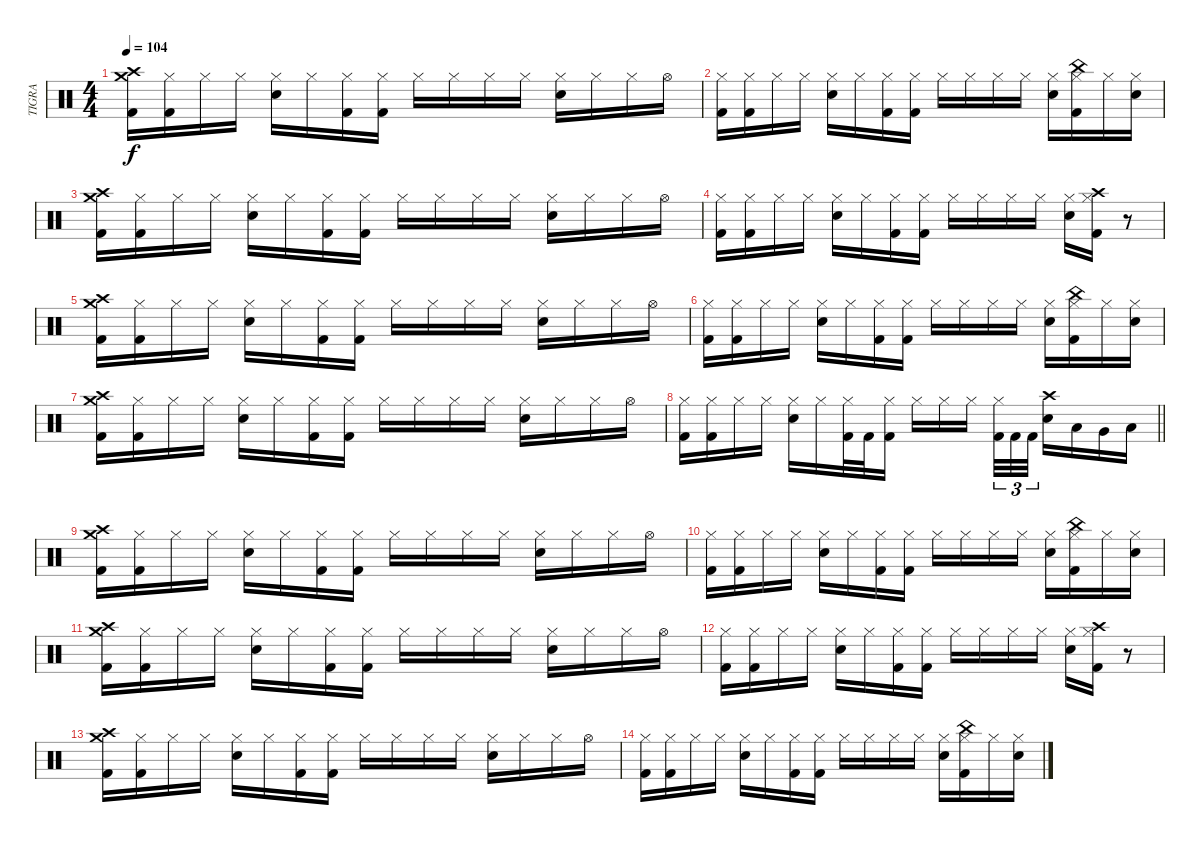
\track ("TIGRA" "TIGRA") {instrument percussion}
\staff {score}
\articulation defaults
\ts (4 4)
\tempo 104
\clef neutral
\ks c
("Crash medium (hit)" "Crash high (hit)" "Kick (hit) 2").16{dy f} ("Hi-Hat (closed)" "Kick (hit) 2").16 "Hi-Hat (closed)".16 "Hi-Hat (closed)".16 ("Hi-Hat (closed)" "Snare (hit) 2").16 "Hi-Hat (closed)".16 ("Hi-Hat (closed)" "Kick (hit) 2").16 ("Hi-Hat (closed)" "Kick (hit) 2").16 "Hi-Hat (closed)".16 "Hi-Hat (closed)".16 "Hi-Hat (closed)".16 "Hi-Hat (closed)".16 ("Hi-Hat (closed)" "Snare (hit) 2").16 "Hi-Hat (closed)".16 "Hi-Hat (closed)".16 "Hi-Hat (open)".16 |
("Hi-Hat (closed)" "Kick (hit) 2").16 ("Hi-Hat (closed)" "Kick (hit) 2").16 "Hi-Hat (closed)".16 "Hi-Hat (closed)".16 ("Hi-Hat (closed)" "Snare (hit) 2").16 "Hi-Hat (closed)".16 ("Hi-Hat (closed)" "Kick (hit) 2").16 ("Hi-Hat (closed)" "Kick (hit) 2").16 "Hi-Hat (closed)".16 "Hi-Hat (closed)".16 "Hi-Hat (closed)".16 "Hi-Hat (closed)".16 ("Hi-Hat (closed)" "Snare (hit) 2").16 ("Hi-Hat (closed)" "China (hit)" "Kick (hit) 2").16 "Hi-Hat (closed)".16 ("Hi-Hat (closed)" "Snare (hit) 2").16 |
("Crash medium (hit)" "Crash high (hit)" "Kick (hit) 2").16 ("Hi-Hat (closed)" "Kick (hit) 2").16 "Hi-Hat (closed)".16 "Hi-Hat (closed)".16 ("Hi-Hat (closed)" "Snare (hit) 2").16 "Hi-Hat (closed)".16 ("Hi-Hat (closed)" "Kick (hit) 2").16 ("Hi-Hat (closed)" "Kick (hit) 2").16 "Hi-Hat (closed)".16 "Hi-Hat (closed)".16 "Hi-Hat (closed)".16 "Hi-Hat (closed)".16 ("Hi-Hat (closed)" "Snare (hit) 2").16 "Hi-Hat (closed)".16 "Hi-Hat (closed)".16 "Hi-Hat (open)".16 |
("Hi-Hat (closed)" "Kick (hit) 2").16 ("Hi-Hat (closed)" "Kick (hit) 2").16 "Hi-Hat (closed)".16 "Hi-Hat (closed)".16 ("Hi-Hat (closed)" "Snare (hit) 2").16 "Hi-Hat (closed)".16 ("Hi-Hat (closed)" "Kick (hit) 2").16 ("Hi-Hat (closed)" "Kick (hit) 2").16 "Hi-Hat (closed)".16 "Hi-Hat (closed)".16 "Hi-Hat (closed)".16 "Hi-Hat (closed)".16 ("Hi-Hat (closed)" "Snare (hit) 2").16 ("Hi-Hat (closed)" "Crash high (hit)" "Kick (hit) 2").16 r.8 |
("Crash medium (hit)" "Crash high (hit)" "Kick (hit) 2").16 ("Hi-Hat (closed)" "Kick (hit) 2").16 "Hi-Hat (closed)".16 "Hi-Hat (closed)".16 ("Hi-Hat (closed)" "Snare (hit) 2").16 "Hi-Hat (closed)".16 ("Hi-Hat (closed)" "Kick (hit) 2").16 ("Hi-Hat (closed)" "Kick (hit) 2").16 "Hi-Hat (closed)".16 "Hi-Hat (closed)".16 "Hi-Hat (closed)".16 "Hi-Hat (closed)".16 ("Hi-Hat (closed)" "Snare (hit) 2").16 "Hi-Hat (closed)".16 "Hi-Hat (closed)".16 "Hi-Hat (open)".16 |
("Hi-Hat (closed)" "Kick (hit) 2").16 ("Hi-Hat (closed)" "Kick (hit) 2").16 "Hi-Hat (closed)".16 "Hi-Hat (closed)".16 ("Hi-Hat (closed)" "Snare (hit) 2").16 "Hi-Hat (closed)".16 ("Hi-Hat (closed)" "Kick (hit) 2").16 ("Hi-Hat (closed)" "Kick (hit) 2").16 "Hi-Hat (closed)".16 "Hi-Hat (closed)".16 "Hi-Hat (closed)".16 "Hi-Hat (closed)".16 ("Hi-Hat (closed)" "Snare (hit) 2").16 ("Hi-Hat (closed)" "China (hit)" "Kick (hit) 2").16 "Hi-Hat (closed)".16 ("Hi-Hat (closed)" "Snare (hit) 2").16 |
("Crash medium (hit)" "Crash high (hit)" "Kick (hit) 2").16 ("Hi-Hat (closed)" "Kick (hit) 2").16 "Hi-Hat (closed)".16 "Hi-Hat (closed)".16 ("Hi-Hat (closed)" "Snare (hit) 2").16 "Hi-Hat (closed)".16 ("Hi-Hat (closed)" "Kick (hit) 2").16 ("Hi-Hat (closed)" "Kick (hit) 2").16 "Hi-Hat (closed)".16 "Hi-Hat (closed)".16 "Hi-Hat (closed)".16 "Hi-Hat (closed)".16 ("Hi-Hat (closed)" "Snare (hit) 2").16 "Hi-Hat (closed)".16 "Hi-Hat (closed)".16 "Hi-Hat (open)".16 |
\barLineRight lightlight
("Hi-Hat (closed)" "Kick (hit) 2").16 ("Hi-Hat (closed)" "Kick (hit) 2").16 "Hi-Hat (closed)".16 "Hi-Hat (closed)".16 ("Hi-Hat (closed)" "Snare (hit) 2").16 "Hi-Hat (closed)".16 ("Hi-Hat (closed)" "Kick (hit) 2").32 "Kick (hit) 2".32 ("Hi-Hat (closed)" "Kick (hit) 2").16 "Hi-Hat (closed)".16 "Hi-Hat (closed)".16 "Hi-Hat (closed)".16{beam splitsecondary} ("Hi-Hat (closed)" "Kick (hit) 2").32{tu (3 2)} "Kick (hit) 2".32{tu (3 2)} "Kick (hit) 2".32{tu (3 2)} ("Crash high (hit)" "Snare (hit) 2").16 "Low Tom (hit)".16 "Very Low Tom (hit)".16 "Low Floor Tom (hit)".16 |
("Crash medium (hit)" "Crash high (hit)" "Kick (hit) 2").16 ("Hi-Hat (closed)" "Kick (hit) 2").16 "Hi-Hat (closed)".16 "Hi-Hat (closed)".16 ("Hi-Hat (closed)" "Snare (hit) 2").16 "Hi-Hat (closed)".16 ("Hi-Hat (closed)" "Kick (hit) 2").16 ("Hi-Hat (closed)" "Kick (hit) 2").16 "Hi-Hat (closed)".16 "Hi-Hat (closed)".16 "Hi-Hat (closed)".16 "Hi-Hat (closed)".16 ("Hi-Hat (closed)" "Snare (hit) 2").16 "Hi-Hat (closed)".16 "Hi-Hat (closed)".16 "Hi-Hat (open)".16 |
("Hi-Hat (closed)" "Kick (hit) 2").16 ("Hi-Hat (closed)" "Kick (hit) 2").16 "Hi-Hat (closed)".16 "Hi-Hat (closed)".16 ("Hi-Hat (closed)" "Snare (hit) 2").16 "Hi-Hat (closed)".16 ("Hi-Hat (closed)" "Kick (hit) 2").16 ("Hi-Hat (closed)" "Kick (hit) 2").16 "Hi-Hat (closed)".16 "Hi-Hat (closed)".16 "Hi-Hat (closed)".16 "Hi-Hat (closed)".16 ("Hi-Hat (closed)" "Snare (hit) 2").16 ("Hi-Hat (closed)" "China (hit)" "Kick (hit) 2").16 "Hi-Hat (closed)".16 ("Hi-Hat (closed)" "Snare (hit) 2").16 |
("Crash medium (hit)" "Crash high (hit)" "Kick (hit) 2").16 ("Hi-Hat (closed)" "Kick (hit) 2").16 "Hi-Hat (closed)".16 "Hi-Hat (closed)".16 ("Hi-Hat (closed)" "Snare (hit) 2").16 "Hi-Hat (closed)".16 ("Hi-Hat (closed)" "Kick (hit) 2").16 ("Hi-Hat (closed)" "Kick (hit) 2").16 "Hi-Hat (closed)".16 "Hi-Hat (closed)".16 "Hi-Hat (closed)".16 "Hi-Hat (closed)".16 ("Hi-Hat (closed)" "Snare (hit) 2").16 "Hi-Hat (closed)".16 "Hi-Hat (closed)".16 "Hi-Hat (open)".16 |
("Hi-Hat (closed)" "Kick (hit) 2").16{volume 0} ("Hi-Hat (closed)" "Kick (hit) 2").16 "Hi-Hat (closed)".16 "Hi-Hat (closed)".16 ("Hi-Hat (closed)" "Snare (hit) 2").16 "Hi-Hat (closed)".16 ("Hi-Hat (closed)" "Kick (hit) 2").16 ("Hi-Hat (closed)" "Kick (hit) 2").16 "Hi-Hat (closed)".16 "Hi-Hat (closed)".16 "Hi-Hat (closed)".16 "Hi-Hat (closed)".16 ("Hi-Hat (closed)" "Snare (hit) 2").16 ("Hi-Hat (closed)" "Crash high (hit)" "Kick (hit) 2").16 r.8 |
("Crash medium (hit)" "Crash high (hit)" "Kick (hit) 2").16 ("Hi-Hat (closed)" "Kick (hit) 2").16 "Hi-Hat (closed)".16 "Hi-Hat (closed)".16 ("Hi-Hat (closed)" "Snare (hit) 2").16 "Hi-Hat (closed)".16 ("Hi-Hat (closed)" "Kick (hit) 2").16 ("Hi-Hat (closed)" "Kick (hit) 2").16 "Hi-Hat (closed)".16 "Hi-Hat (closed)".16 "Hi-Hat (closed)".16 "Hi-Hat (closed)".16 ("Hi-Hat (closed)" "Snare (hit) 2").16 "Hi-Hat (closed)".16 "Hi-Hat (closed)".16 "Hi-Hat (open)".16 |
("Hi-Hat (closed)" "Kick (hit) 2").16 ("Hi-Hat (closed)" "Kick (hit) 2").16 "Hi-Hat (closed)".16 "Hi-Hat (closed)".16 ("Hi-Hat (closed)" "Snare (hit) 2").16 "Hi-Hat (closed)".16 ("Hi-Hat (closed)" "Kick (hit) 2").16 ("Hi-Hat (closed)" "Kick (hit) 2").16 "Hi-Hat (closed)".16 "Hi-Hat (closed)".16 "Hi-Hat (closed)".16 "Hi-Hat (closed)".16 ("Hi-Hat (closed)" "Snare (hit) 2").16 ("Hi-Hat (closed)" "China (hit)" "Kick (hit) 2").16 "Hi-Hat (closed)".16 ("Hi-Hat (closed)" "Snare (hit) 2").16
